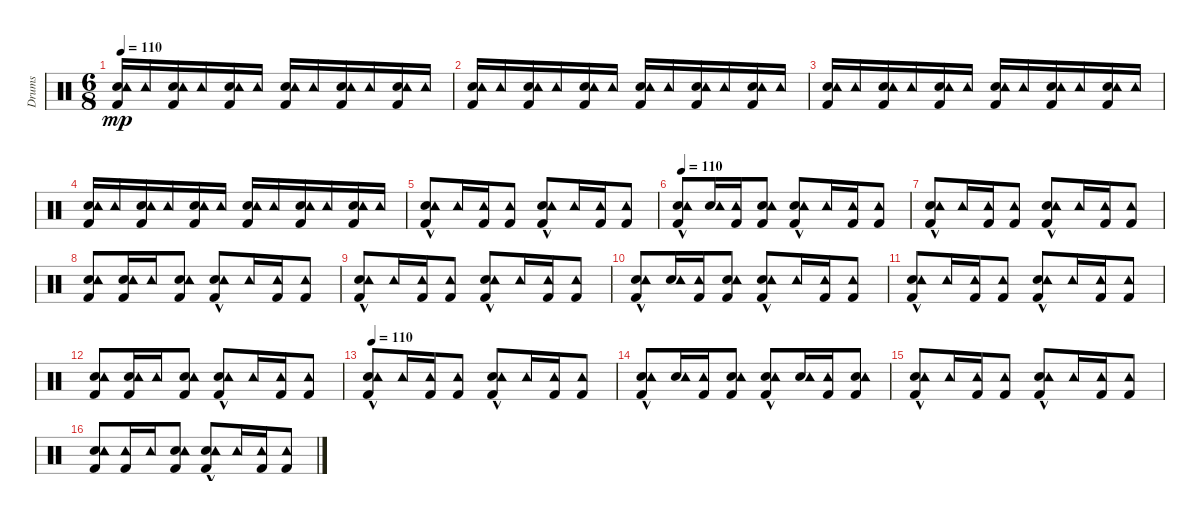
\track ("Drums" "Drums") {instrument percussion}
\staff {score}
\articulation defaults
\ts (6 8)
\tempo 110
\clef neutral
\ks c
("Hand Clap (hit)" "Tambourine (hit)" "Kick (hit) 2").16{dy mp} "Tambourine (hit)".16 ("Hand Clap (hit)" "Tambourine (hit)" "Kick (hit) 2").16 "Tambourine (hit)".16 ("Hand Clap (hit)" "Tambourine (hit)" "Kick (hit) 2").16 "Tambourine (hit)".16 ("Hand Clap (hit)" "Tambourine (hit)" "Kick (hit) 2").16 "Tambourine (hit)".16 ("Hand Clap (hit)" "Tambourine (hit)" "Kick (hit) 2").16 "Tambourine (hit)".16 ("Hand Clap (hit)" "Tambourine (hit)" "Kick (hit) 2").16 "Tambourine (hit)".16 |
("Hand Clap (hit)" "Tambourine (hit)" "Kick (hit) 2").16 "Tambourine (hit)".16 ("Hand Clap (hit)" "Tambourine (hit)" "Kick (hit) 2").16 "Tambourine (hit)".16 ("Hand Clap (hit)" "Tambourine (hit)" "Kick (hit) 2").16 "Tambourine (hit)".16 ("Hand Clap (hit)" "Tambourine (hit)" "Kick (hit) 2").16 "Tambourine (hit)".16 ("Hand Clap (hit)" "Tambourine (hit)" "Kick (hit) 2").16 "Tambourine (hit)".16 ("Hand Clap (hit)" "Tambourine (hit)" "Kick (hit) 2").16 "Tambourine (hit)".16 |
("Hand Clap (hit)" "Tambourine (hit)" "Kick (hit) 2").16 "Tambourine (hit)".16 ("Hand Clap (hit)" "Tambourine (hit)" "Kick (hit) 2").16 "Tambourine (hit)".16 ("Hand Clap (hit)" "Tambourine (hit)" "Kick (hit) 2").16 "Tambourine (hit)".16 ("Hand Clap (hit)" "Tambourine (hit)" "Kick (hit) 2").16 "Tambourine (hit)".16 ("Hand Clap (hit)" "Tambourine (hit)" "Kick (hit) 2").16 "Tambourine (hit)".16 ("Hand Clap (hit)" "Tambourine (hit)" "Kick (hit) 2").16 "Tambourine (hit)".16 |
("Hand Clap (hit)" "Tambourine (hit)" "Kick (hit) 2").16 "Tambourine (hit)".16 ("Hand Clap (hit)" "Tambourine (hit)" "Kick (hit) 2").16 "Tambourine (hit)".16 ("Hand Clap (hit)" "Tambourine (hit)" "Kick (hit) 2").16 "Tambourine (hit)".16 ("Hand Clap (hit)" "Tambourine (hit)" "Kick (hit) 2").16 "Tambourine (hit)".16 ("Hand Clap (hit)" "Tambourine (hit)" "Kick (hit) 2").16 "Tambourine (hit)".16 ("Hand Clap (hit)" "Tambourine (hit)" "Kick (hit) 2").16 "Tambourine (hit)".16 |
("Hand Clap (hit)" "Tambourine (hit)" "Kick (hit) 2"{hac}).8 "Tambourine (hit)".16 ("Tambourine (hit)" "Kick (hit) 2").16 ("Tambourine (hit)" "Kick (hit) 2").8 ("Hand Clap (hit)" "Tambourine (hit)" "Kick (hit) 2"{hac}).8 "Tambourine (hit)".16 ("Tambourine (hit)" "Kick (hit) 2").16 ("Tambourine (hit)" "Kick (hit) 2").8 |
\tempo 110
("Hand Clap (hit)" "Tambourine (hit)" "Kick (hit) 2"{hac}).8 ("Hand Clap (hit)" "Tambourine (hit)").16 ("Tambourine (hit)" "Kick (hit) 2").16 ("Hand Clap (hit)" "Tambourine (hit)" "Kick (hit) 2").8 ("Hand Clap (hit)" "Tambourine (hit)" "Kick (hit) 2"{hac}).8 "Tambourine (hit)".16 ("Tambourine (hit)" "Kick (hit) 2").16 ("Tambourine (hit)" "Kick (hit) 2").8 |
("Hand Clap (hit)" "Tambourine (hit)" "Kick (hit) 2"{hac}).8 "Tambourine (hit)".16 ("Tambourine (hit)" "Kick (hit) 2").16 ("Tambourine (hit)" "Kick (hit) 2").8 ("Hand Clap (hit)" "Tambourine (hit)" "Kick (hit) 2"{hac}).8 "Tambourine (hit)".16 ("Tambourine (hit)" "Kick (hit) 2").16 ("Tambourine (hit)" "Kick (hit) 2").8 |
("Hand Clap (hit)" "Tambourine (hit)" "Kick (hit) 2").8 ("Hand Clap (hit)" "Tambourine (hit)" "Kick (hit) 2").16 "Tambourine (hit)".16 ("Hand Clap (hit)" "Tambourine (hit)" "Kick (hit) 2").8 ("Hand Clap (hit)" "Tambourine (hit)" "Kick (hit) 2"{hac}).8 "Tambourine (hit)".16 ("Tambourine (hit)" "Kick (hit) 2").16 ("Tambourine (hit)" "Kick (hit) 2").8 |
("Hand Clap (hit)" "Tambourine (hit)" "Kick (hit) 2"{hac}).8 "Tambourine (hit)".16 ("Tambourine (hit)" "Kick (hit) 2").16 ("Tambourine (hit)" "Kick (hit) 2").8 ("Hand Clap (hit)" "Tambourine (hit)" "Kick (hit) 2"{hac}).8 "Tambourine (hit)".16 ("Tambourine (hit)" "Kick (hit) 2").16 ("Tambourine (hit)" "Kick (hit) 2").8 |
("Hand Clap (hit)" "Tambourine (hit)" "Kick (hit) 2"{hac}).8 ("Hand Clap (hit)" "Tambourine (hit)").16 ("Tambourine (hit)" "Kick (hit) 2").16 ("Hand Clap (hit)" "Tambourine (hit)" "Kick (hit) 2").8 ("Hand Clap (hit)" "Tambourine (hit)" "Kick (hit) 2"{hac}).8 "Tambourine (hit)".16 ("Tambourine (hit)" "Kick (hit) 2").16 ("Tambourine (hit)" "Kick (hit) 2").8 |
("Hand Clap (hit)" "Tambourine (hit)" "Kick (hit) 2"{hac}).8 "Tambourine (hit)".16 ("Tambourine (hit)" "Kick (hit) 2").16 ("Tambourine (hit)" "Kick (hit) 2").8 ("Hand Clap (hit)" "Tambourine (hit)" "Kick (hit) 2"{hac}).8 "Tambourine (hit)".16 ("Tambourine (hit)" "Kick (hit) 2").16 ("Tambourine (hit)" "Kick (hit) 2").8 |
("Hand Clap (hit)" "Tambourine (hit)" "Kick (hit) 2").8 ("Hand Clap (hit)" "Tambourine (hit)" "Kick (hit) 2").16 "Tambourine (hit)".16 ("Hand Clap (hit)" "Tambourine (hit)" "Kick (hit) 2").8 ("Hand Clap (hit)" "Tambourine (hit)" "Kick (hit) 2"{hac}).8 "Tambourine (hit)".16 ("Tambourine (hit)" "Kick (hit) 2").16 ("Tambourine (hit)" "Kick (hit) 2").8 |
\tempo 110
("Hand Clap (hit)" "Tambourine (hit)" "Kick (hit) 2"{hac}).8 "Tambourine (hit)".16 ("Tambourine (hit)" "Kick (hit) 2").16 ("Tambourine (hit)" "Kick (hit) 2").8 ("Hand Clap (hit)" "Tambourine (hit)" "Kick (hit) 2"{hac}).8 "Tambourine (hit)".16 ("Tambourine (hit)" "Kick (hit) 2").16 ("Tambourine (hit)" "Kick (hit) 2").8 |
("Hand Clap (hit)" "Tambourine (hit)" "Kick (hit) 2"{hac}).8 ("Hand Clap (hit)" "Tambourine (hit)").16 ("Tambourine (hit)" "Kick (hit) 2").16 ("Hand Clap (hit)" "Tambourine (hit)" "Kick (hit) 2").8 ("Hand Clap (hit)" "Tambourine (hit)" "Kick (hit) 2"{hac}).8 ("Hand Clap (hit)" "Tambourine (hit)").16 ("Tambourine (hit)" "Kick (hit) 2").16 ("Hand Clap (hit)" "Tambourine (hit)" "Kick (hit) 2").8 |
("Hand Clap (hit)" "Tambourine (hit)" "Kick (hit) 2"{hac}).8 "Tambourine (hit)".16 ("Tambourine (hit)" "Kick (hit) 2").16 ("Tambourine (hit)" "Kick (hit) 2").8 ("Hand Clap (hit)" "Tambourine (hit)" "Kick (hit) 2"{hac}).8 "Tambourine (hit)".16 ("Tambourine (hit)" "Kick (hit) 2").16 ("Tambourine (hit)" "Kick (hit) 2").8 |
("Hand Clap (hit)" "Tambourine (hit)" "Kick (hit) 2").8 ("Tambourine (hit)" "Kick (hit) 2").16 "Tambourine (hit)".16 ("Hand Clap (hit)" "Tambourine (hit)" "Kick (hit) 2").8 ("Hand Clap (hit)" "Tambourine (hit)" "Kick (hit) 2"{hac}).8 "Tambourine (hit)".16 ("Tambourine (hit)" "Kick (hit) 2").16 ("Tambourine (hit)" "Kick (hit) 2").8
